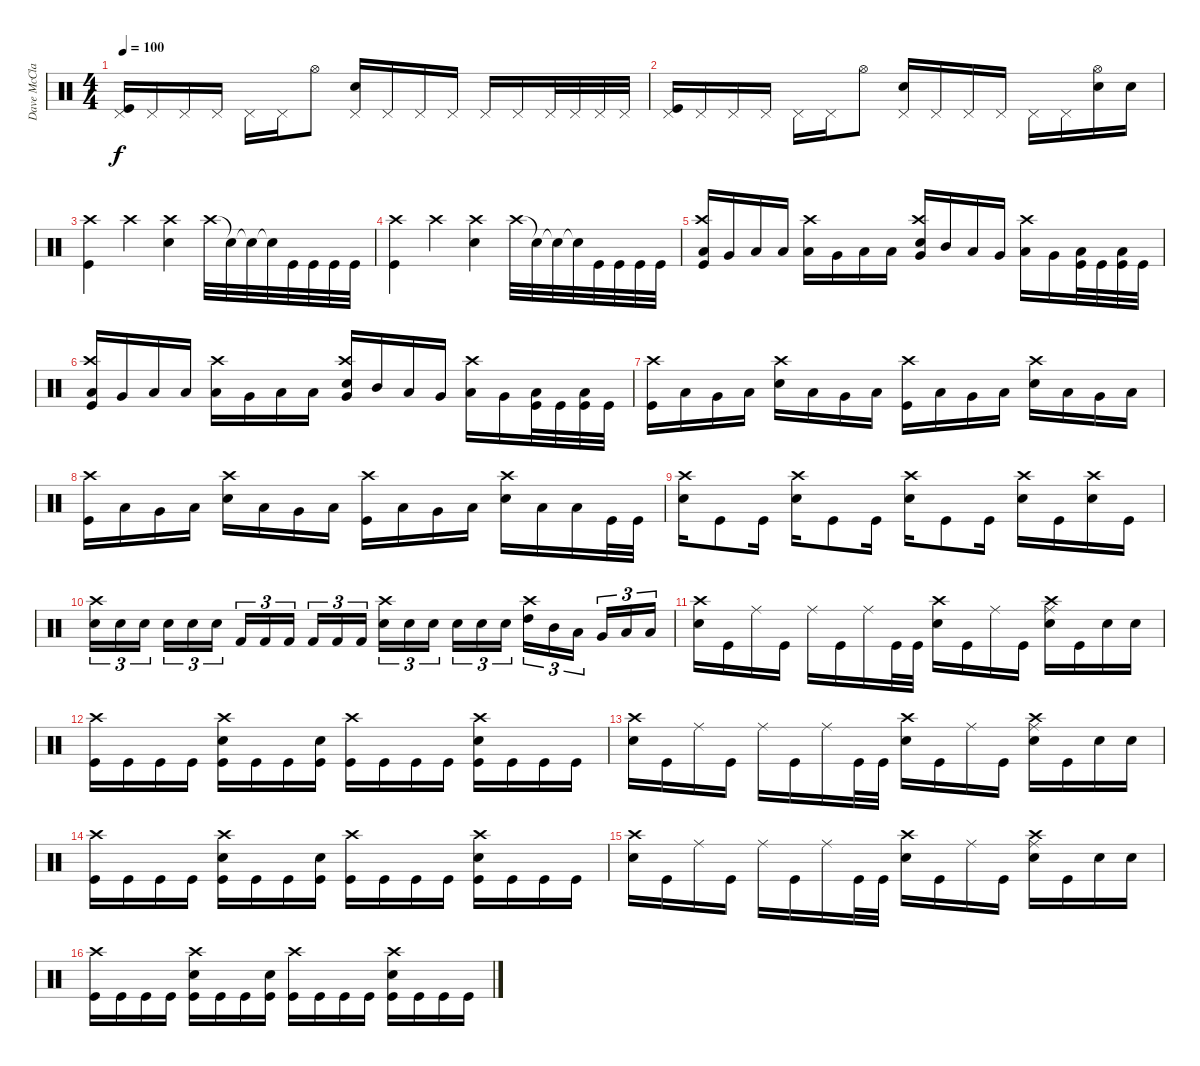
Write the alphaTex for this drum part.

\track ("Dave McClain" "Dave McCla") {instrument percussion}
\staff {score}
\articulation defaults
\ts (4 4)
\tempo 100
\clef neutral
\ks c
("Pedal Hi-Hat (hit)" "Kick (hit)").16{dy f} "Pedal Hi-Hat (hit)".16 "Pedal Hi-Hat (hit)".16 "Pedal Hi-Hat (hit)".16 "Pedal Hi-Hat (hit)".16 "Pedal Hi-Hat (hit)".16 "Hi-Hat (open)".8 ("Pedal Hi-Hat (hit)" "Snare (hit) 2").16 "Pedal Hi-Hat (hit)".16 "Pedal Hi-Hat (hit)".16 "Pedal Hi-Hat (hit)".16 "Pedal Hi-Hat (hit)".16 "Pedal Hi-Hat (hit)".16 "Pedal Hi-Hat (hit)".32 "Pedal Hi-Hat (hit)".32 "Pedal Hi-Hat (hit)".32 "Pedal Hi-Hat (hit)".32 |
("Pedal Hi-Hat (hit)" "Kick (hit)").16 "Pedal Hi-Hat (hit)".16 "Pedal Hi-Hat (hit)".16 "Pedal Hi-Hat (hit)".16 "Pedal Hi-Hat (hit)".16 "Pedal Hi-Hat (hit)".16 "Hi-Hat (open)".8 ("Pedal Hi-Hat (hit)" "Snare (hit) 2").16 "Pedal Hi-Hat (hit)".16 "Pedal Hi-Hat (hit)".16 "Pedal Hi-Hat (hit)".16 "Pedal Hi-Hat (hit)".16 "Pedal Hi-Hat (hit)".16 ("Hi-Hat (open)" "Snare (hit) 2").16 "Snare (hit) 2".16 |
("Crash high (hit)" "Kick (hit)").4 "Crash high (hit)".4 ("Crash high (hit)" "Snare (hit) 2").4 "Crash high (hit)".32 "Snare (hit)"{t}.32 "Snare (hit)"{t}.32 "Snare (hit)"{t}.32 "Kick (hit)".32 "Kick (hit)".32 "Kick (hit)".32 "Kick (hit)".32 |
("Crash high (hit)" "Kick (hit)").4 "Crash high (hit)".4 ("Crash high (hit)" "Snare (hit) 2").4 "Crash high (hit)".32 "Snare (hit)"{t}.32 "Snare (hit)"{t}.32 "Snare (hit)"{t}.32 "Kick (hit)".32 "Kick (hit)".32 "Kick (hit)".32 "Kick (hit)".32 |
("Crash high (hit)" "Low Floor Tom (hit)" "Kick (hit)").16 "Very Low Tom (hit)".16 "Low Floor Tom (hit)".16 "Low Floor Tom (hit)".16 ("Crash high (hit)" "Low Tom (hit)").16 "Very Low Tom (hit)".16 "Low Floor Tom (hit)".16 "Low Floor Tom (hit)".16 ("Crash high (hit)" "Very Low Tom (hit)" "Snare (hit) 2").16 "Mid Tom (hit)".16 "Low Tom (hit)".16 "Very Low Tom (hit)".16 ("Crash high (hit)" "Low Floor Tom (hit)").16 "Very Low Tom (hit)".16 ("Low Tom (hit)" "Kick (hit)").32 "Kick (hit)".32 ("Low Floor Tom (hit)" "Kick (hit)").32 "Kick (hit)".32 |
("Crash high (hit)" "Low Floor Tom (hit)" "Kick (hit)").16 "Very Low Tom (hit)".16 "Low Floor Tom (hit)".16 "Low Floor Tom (hit)".16 ("Crash high (hit)" "Low Tom (hit)").16 "Very Low Tom (hit)".16 "Low Floor Tom (hit)".16 "Low Floor Tom (hit)".16 ("Crash high (hit)" "Very Low Tom (hit)" "Snare (hit) 2").16 "Mid Tom (hit)".16 "Low Tom (hit)".16 "Very Low Tom (hit)".16 ("Crash high (hit)" "Low Floor Tom (hit)").16 "Very Low Tom (hit)".16 ("Low Tom (hit)" "Kick (hit)").32 "Kick (hit)".32 ("Low Floor Tom (hit)" "Kick (hit)").32 "Kick (hit)".32 |
("Crash high (hit)" "Kick (hit)").16 "Low Tom (hit)".16 "Very Low Tom (hit)".16 "Low Floor Tom (hit)".16 ("Crash high (hit)" "Snare (hit) 2").16 "Low Tom (hit)".16 "Very Low Tom (hit)".16 "Low Floor Tom (hit)".16 ("Crash high (hit)" "Kick (hit)").16 "Low Tom (hit)".16 "Very Low Tom (hit)".16 "Low Floor Tom (hit)".16 ("Crash high (hit)" "Snare (hit) 2").16 "Low Tom (hit)".16 "Very Low Tom (hit)".16 "Low Floor Tom (hit)".16 |
("Crash high (hit)" "Kick (hit)").16 "Low Tom (hit)".16 "Very Low Tom (hit)".16 "Low Floor Tom (hit)".16 ("Crash high (hit)" "Snare (hit) 2").16 "Low Tom (hit)".16 "Very Low Tom (hit)".16 "Low Floor Tom (hit)".16 ("Crash high (hit)" "Kick (hit)").16 "Low Tom (hit)".16 "Very Low Tom (hit)".16 "Low Floor Tom (hit)".16 ("Crash high (hit)" "Snare (hit) 2").16 "Low Tom (hit)".16 "Low Floor Tom (hit)".16 "Kick (hit)".32 "Kick (hit)".32 |
("Crash high (hit)" "Snare (hit) 2").16 "Kick (hit)".8 "Kick (hit)".16 ("Crash high (hit)" "Snare (hit) 2").16 "Kick (hit)".8 "Kick (hit)".16 ("Crash high (hit)" "Snare (hit) 2").16 "Kick (hit)".8 "Kick (hit)".16 ("Crash high (hit)" "Snare (hit) 2").16 "Kick (hit)".16 ("Crash high (hit)" "Snare (hit) 2").16 "Kick (hit)".16 |
("Crash high (hit)" "Snare (hit) 2").16{tu (3 2)} "Snare (hit) 2".16{tu (3 2)} "Snare (hit) 2".16{tu (3 2)} "Snare (hit) 2".16{tu (3 2)} "Snare (hit) 2".16{tu (3 2)} "Snare (hit) 2".16{tu (3 2)} "Kick (hit) 2".16{tu (3 2)} "Kick (hit) 2".16{tu (3 2)} "Kick (hit) 2".16{tu (3 2)} "Kick (hit) 2".16{tu (3 2)} "Kick (hit) 2".16{tu (3 2)} "Kick (hit) 2".16{tu (3 2)} ("Crash high (hit)" "Snare (hit) 2").16{tu (3 2)} "Snare (hit) 2".16{tu (3 2)} "Snare (hit) 2".16{tu (3 2)} "Snare (hit) 2".16{tu (3 2)} "Snare (hit) 2".16{tu (3 2)} "Snare (hit) 2".16{tu (3 2)} ("Crash high (hit)" "High Tom (hit)").16{tu (3 2)} "Mid Tom (hit)".16{tu (3 2)} "Low Tom (hit)".16{tu (3 2)} "Very Low Tom (hit)".16{tu (3 2)} "Low Floor Tom (hit)".16{tu (3 2)} "Low Floor Tom (hit)".16{tu (3 2)} |
("Crash high (hit)" "Snare (hit) 2").16 "Kick (hit)".16 "Ride (middle)".16 "Kick (hit)".16 "Ride (middle)".16 "Kick (hit)".16 "Ride (middle)".16 "Kick (hit)".32 "Kick (hit)".32 ("Crash high (hit)" "Snare (hit) 2").16 "Kick (hit)".16 "Ride (middle)".16 "Kick (hit)".16 ("Crash high (hit)" "Ride (middle)" "Snare (hit) 2").16 "Kick (hit)".16 "Snare (hit) 2".16 "Snare (hit) 2".16 |
("Crash high (hit)" "Kick (hit)").16 "Kick (hit)".16 "Kick (hit)".16 "Kick (hit)".16 ("Crash high (hit)" "Snare (hit) 2" "Kick (hit)").16 "Kick (hit)".16 "Kick (hit)".16 ("Snare (hit) 2" "Kick (hit)").16 ("Crash high (hit)" "Kick (hit)").16 "Kick (hit)".16 "Kick (hit)".16 "Kick (hit)".16 ("Crash high (hit)" "Snare (hit) 2" "Kick (hit)").16 "Kick (hit)".16 "Kick (hit)".16 "Kick (hit)".16 |
("Crash high (hit)" "Snare (hit) 2").16 "Kick (hit)".16 "Ride (middle)".16 "Kick (hit)".16 "Ride (middle)".16 "Kick (hit)".16 "Ride (middle)".16 "Kick (hit)".32 "Kick (hit)".32 ("Crash high (hit)" "Snare (hit) 2").16 "Kick (hit)".16 "Ride (middle)".16 "Kick (hit)".16 ("Crash high (hit)" "Ride (middle)" "Snare (hit) 2").16 "Kick (hit)".16 "Snare (hit) 2".16 "Snare (hit) 2".16 |
("Crash high (hit)" "Kick (hit)").16 "Kick (hit)".16 "Kick (hit)".16 "Kick (hit)".16 ("Crash high (hit)" "Snare (hit) 2" "Kick (hit)").16 "Kick (hit)".16 "Kick (hit)".16 ("Snare (hit) 2" "Kick (hit)").16 ("Crash high (hit)" "Kick (hit)").16 "Kick (hit)".16 "Kick (hit)".16 "Kick (hit)".16 ("Crash high (hit)" "Snare (hit) 2" "Kick (hit)").16 "Kick (hit)".16 "Kick (hit)".16 "Kick (hit)".16 |
("Crash high (hit)" "Snare (hit) 2").16 "Kick (hit)".16 "Ride (middle)".16 "Kick (hit)".16 "Ride (middle)".16 "Kick (hit)".16 "Ride (middle)".16 "Kick (hit)".32 "Kick (hit)".32 ("Crash high (hit)" "Snare (hit) 2").16 "Kick (hit)".16 "Ride (middle)".16 "Kick (hit)".16 ("Crash high (hit)" "Ride (middle)" "Snare (hit) 2").16 "Kick (hit)".16 "Snare (hit) 2".16 "Snare (hit) 2".16 |
("Crash high (hit)" "Kick (hit)").16 "Kick (hit)".16 "Kick (hit)".16 "Kick (hit)".16 ("Crash high (hit)" "Snare (hit) 2" "Kick (hit)").16 "Kick (hit)".16 "Kick (hit)".16 ("Snare (hit) 2" "Kick (hit)").16 ("Crash high (hit)" "Kick (hit)").16 "Kick (hit)".16 "Kick (hit)".16 "Kick (hit)".16 ("Crash high (hit)" "Snare (hit) 2" "Kick (hit)").16 "Kick (hit)".16 "Kick (hit)".16 "Kick (hit)".16
